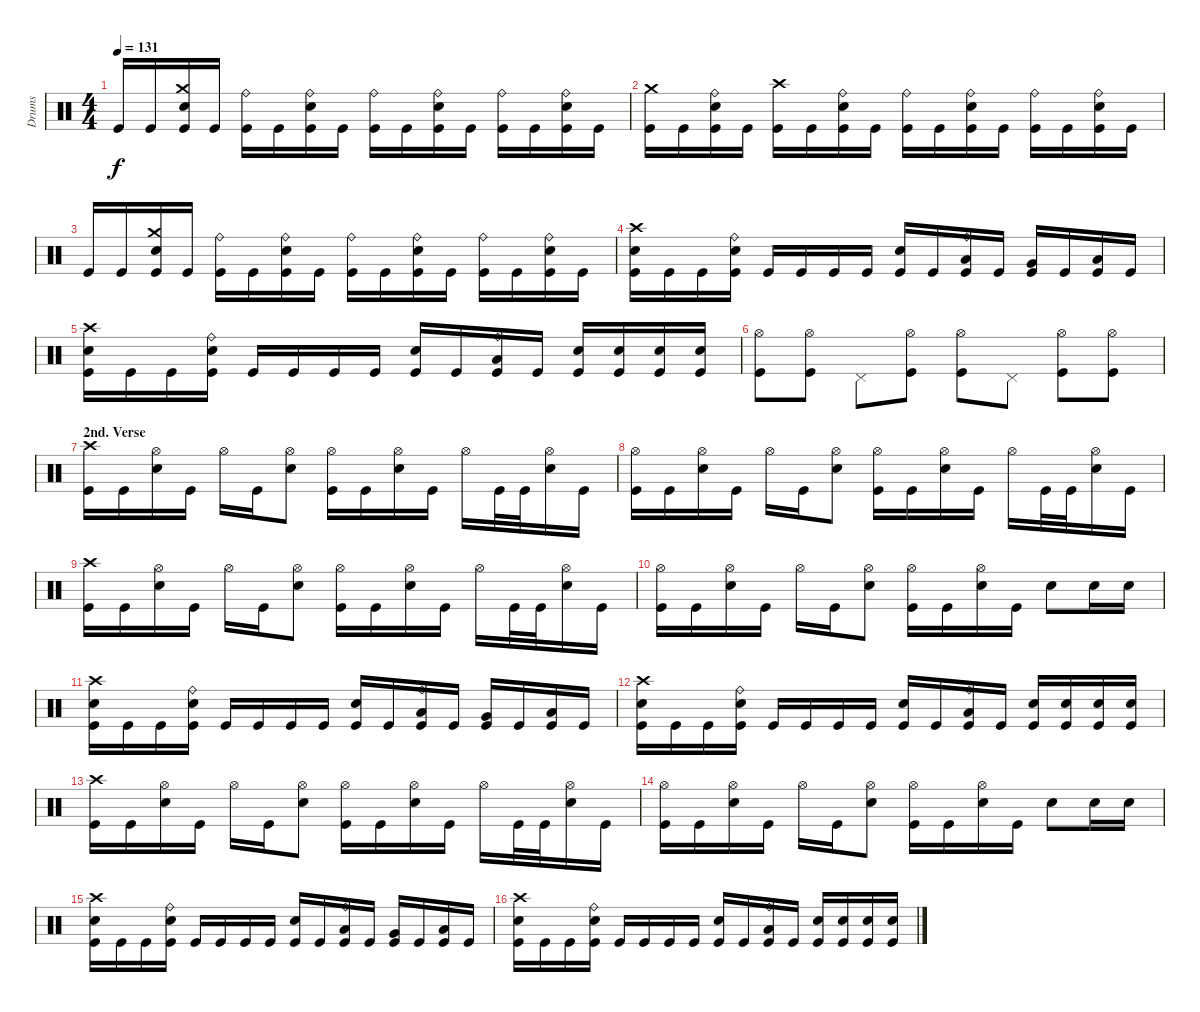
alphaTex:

\track ("Drums" "Drums") {instrument percussion}
\staff {score}
\articulation defaults
\ts (4 4)
\tempo 131
\clef neutral
\ks c "Kick (hit)".16{dy f} "Kick (hit)".16
("Crash medium (hit)" "Snare (hit) 2" "Kick (hit)").16 "Kick (hit)".16 ("Ride (bell)" "Kick (hit)").16 "Kick (hit)".16 ("Ride (bell)" "Snare (hit) 2" "Kick (hit)").16 "Kick (hit)".16 ("Ride (bell)" "Kick (hit)").16 "Kick (hit)".16 ("Ride (bell)" "Snare (hit) 2" "Kick (hit)").16 "Kick (hit)".16 ("Ride (bell)" "Kick (hit)").16 "Kick (hit)".16 ("Ride (bell)" "Snare (hit) 2" "Kick (hit)").16 "Kick (hit)".16 |
("Crash medium (hit)" "Kick (hit)").16 "Kick (hit)".16 ("Ride (bell)" "Snare (hit) 2" "Kick (hit)").16 "Kick (hit)".16 ("Crash high (hit)" "Kick (hit)").16 "Kick (hit)".16 ("Ride (bell)" "Snare (hit) 2" "Kick (hit)").16 "Kick (hit)".16 ("Ride (bell)" "Kick (hit)").16 "Kick (hit)".16 ("Ride (bell)" "Snare (hit) 2" "Kick (hit)").16 "Kick (hit)".16 ("Ride (bell)" "Kick (hit)").16 "Kick (hit)".16 ("Ride (bell)" "Snare (hit) 2" "Kick (hit)").16 "Kick (hit)".16 |
"Kick (hit)".16 "Kick (hit)".16 ("Crash medium (hit)" "Snare (hit) 2" "Kick (hit)").16 "Kick (hit)".16 ("Ride (bell)" "Kick (hit)").16 "Kick (hit)".16 ("Ride (bell)" "Snare (hit) 2" "Kick (hit)").16 "Kick (hit)".16 ("Ride (bell)" "Kick (hit)").16 "Kick (hit)".16 ("Ride (bell)" "Snare (hit) 2" "Kick (hit)").16 "Kick (hit)".16 ("Ride (bell)" "Kick (hit)").16 "Kick (hit)".16 ("Ride (bell)" "Snare (hit) 2" "Kick (hit)").16 "Kick (hit)".16 |
("Crash high (hit)" "Snare (hit) 2" "Kick (hit)").16 "Kick (hit)".16 "Kick (hit)".16 ("Ride (bell)" "Snare (hit) 2" "Kick (hit)").16 "Kick (hit)".16 "Kick (hit)".16 "Kick (hit)".16 "Kick (hit)".16 ("Snare (hit) 2" "Kick (hit)").16 "Kick (hit)".16 ("Low Tom (hit)" "Ride (bell)" "Kick (hit)").16 "Kick (hit)".16 ("Very Low Tom (hit)" "Kick (hit)").16 "Kick (hit)".16 ("Low Floor Tom (hit)" "Kick (hit)").16 "Kick (hit)".16 |
("Crash high (hit)" "Snare (hit) 2" "Kick (hit)").16 "Kick (hit)".16 "Kick (hit)".16 ("Ride (bell)" "Snare (hit) 2" "Kick (hit)").16 "Kick (hit)".16 "Kick (hit)".16 "Kick (hit)".16 "Kick (hit)".16 ("Snare (hit) 2" "Kick (hit)").16 "Kick (hit)".16 ("Low Tom (hit)" "Ride (bell)" "Kick (hit)").16 "Kick (hit)".16 ("Snare (hit) 2" "Kick (hit)").16 ("Snare (hit) 2" "Kick (hit)").16 ("Snare (hit) 2" "Kick (hit)").16 ("Snare (hit) 2" "Kick (hit)").16 |
("Hi-Hat (open)" "Kick (hit)").8 ("Hi-Hat (open)" "Kick (hit)").8 "Pedal Hi-Hat (hit)".8 ("Hi-Hat (open)" "Kick (hit)").8 ("Hi-Hat (open)" "Kick (hit)").8 "Pedal Hi-Hat (hit)".8 ("Hi-Hat (open)" "Kick (hit)").8 ("Hi-Hat (open)" "Kick (hit)").8 |
\section ("" "2nd. Verse")
("Crash high (hit)" "Kick (hit)").16 "Kick (hit)".16 ("Hi-Hat (open)" "Snare (hit) 2").16 "Kick (hit)".16 "Hi-Hat (open)".16 "Kick (hit)".16 ("Hi-Hat (open)" "Snare (hit) 2").8 ("Hi-Hat (open)" "Kick (hit)").16 "Kick (hit)".16 ("Hi-Hat (open)" "Snare (hit) 2").16 "Kick (hit)".16 "Hi-Hat (open)".16 "Kick (hit)".32 "Kick (hit)".32 ("Hi-Hat (open)" "Snare (hit) 2").16 "Kick (hit)".16 |
("Hi-Hat (open)" "Kick (hit)").16 "Kick (hit)".16 ("Hi-Hat (open)" "Snare (hit) 2").16 "Kick (hit)".16 "Hi-Hat (open)".16 "Kick (hit)".16 ("Hi-Hat (open)" "Snare (hit) 2").8 ("Hi-Hat (open)" "Kick (hit)").16 "Kick (hit)".16 ("Hi-Hat (open)" "Snare (hit) 2").16 "Kick (hit)".16 "Hi-Hat (open)".16 "Kick (hit)".32 "Kick (hit)".32 ("Hi-Hat (open)" "Snare (hit) 2").16 "Kick (hit)".16 |
("Crash high (hit)" "Kick (hit)").16 "Kick (hit)".16 ("Hi-Hat (open)" "Snare (hit) 2").16 "Kick (hit)".16 "Hi-Hat (open)".16 "Kick (hit)".16 ("Hi-Hat (open)" "Snare (hit) 2").8 ("Hi-Hat (open)" "Kick (hit)").16 "Kick (hit)".16 ("Hi-Hat (open)" "Snare (hit) 2").16 "Kick (hit)".16 "Hi-Hat (open)".16 "Kick (hit)".32 "Kick (hit)".32 ("Hi-Hat (open)" "Snare (hit) 2").16 "Kick (hit)".16 |
("Hi-Hat (open)" "Kick (hit)").16 "Kick (hit)".16 ("Hi-Hat (open)" "Snare (hit) 2").16 "Kick (hit)".16 "Hi-Hat (open)".16 "Kick (hit)".16 ("Hi-Hat (open)" "Snare (hit) 2").8 ("Hi-Hat (open)" "Kick (hit)").16 "Kick (hit)".16 ("Hi-Hat (open)" "Snare (hit) 2").16 "Kick (hit)".16 "Snare (hit) 2".8 "Snare (hit) 2".16 "Snare (hit) 2".16 |
("Crash high (hit)" "Snare (hit) 2" "Kick (hit)").16 "Kick (hit)".16 "Kick (hit)".16 ("Ride (bell)" "Snare (hit) 2" "Kick (hit)").16 "Kick (hit)".16 "Kick (hit)".16 "Kick (hit)".16 "Kick (hit)".16 ("Snare (hit) 2" "Kick (hit)").16 "Kick (hit)".16 ("Low Tom (hit)" "Ride (bell)" "Kick (hit)").16 "Kick (hit)".16 ("Very Low Tom (hit)" "Kick (hit)").16 "Kick (hit)".16 ("Low Floor Tom (hit)" "Kick (hit)").16 "Kick (hit)".16 |
("Crash high (hit)" "Snare (hit) 2" "Kick (hit)").16 "Kick (hit)".16 "Kick (hit)".16 ("Ride (bell)" "Snare (hit) 2" "Kick (hit)").16 "Kick (hit)".16 "Kick (hit)".16 "Kick (hit)".16 "Kick (hit)".16 ("Snare (hit) 2" "Kick (hit)").16 "Kick (hit)".16 ("Low Tom (hit)" "Ride (bell)" "Kick (hit)").16 "Kick (hit)".16 ("Snare (hit) 2" "Kick (hit)").16 ("Snare (hit) 2" "Kick (hit)").16 ("Snare (hit) 2" "Kick (hit)").16 ("Snare (hit) 2" "Kick (hit)").16 |
("Crash high (hit)" "Kick (hit)").16 "Kick (hit)".16 ("Hi-Hat (open)" "Snare (hit) 2").16 "Kick (hit)".16 "Hi-Hat (open)".16 "Kick (hit)".16 ("Hi-Hat (open)" "Snare (hit) 2").8 ("Hi-Hat (open)" "Kick (hit)").16 "Kick (hit)".16 ("Hi-Hat (open)" "Snare (hit) 2").16 "Kick (hit)".16 "Hi-Hat (open)".16 "Kick (hit)".32 "Kick (hit)".32 ("Hi-Hat (open)" "Snare (hit) 2").16 "Kick (hit)".16 |
("Hi-Hat (open)" "Kick (hit)").16 "Kick (hit)".16 ("Hi-Hat (open)" "Snare (hit) 2").16 "Kick (hit)".16 "Hi-Hat (open)".16 "Kick (hit)".16 ("Hi-Hat (open)" "Snare (hit) 2").8 ("Hi-Hat (open)" "Kick (hit)").16 "Kick (hit)".16 ("Hi-Hat (open)" "Snare (hit) 2").16 "Kick (hit)".16 "Snare (hit) 2".8 "Snare (hit) 2".16 "Snare (hit) 2".16 |
("Crash high (hit)" "Snare (hit) 2" "Kick (hit)").16 "Kick (hit)".16 "Kick (hit)".16 ("Ride (bell)" "Snare (hit) 2" "Kick (hit)").16 "Kick (hit)".16 "Kick (hit)".16 "Kick (hit)".16 "Kick (hit)".16 ("Snare (hit) 2" "Kick (hit)").16 "Kick (hit)".16 ("Low Tom (hit)" "Ride (bell)" "Kick (hit)").16 "Kick (hit)".16 ("Very Low Tom (hit)" "Kick (hit)").16 "Kick (hit)".16 ("Low Floor Tom (hit)" "Kick (hit)").16 "Kick (hit)".16 |
("Crash high (hit)" "Snare (hit) 2" "Kick (hit)").16 "Kick (hit)".16 "Kick (hit)".16 ("Ride (bell)" "Snare (hit) 2" "Kick (hit)").16 "Kick (hit)".16 "Kick (hit)".16 "Kick (hit)".16 "Kick (hit)".16 ("Snare (hit) 2" "Kick (hit)").16 "Kick (hit)".16 ("Low Tom (hit)" "Ride (bell)" "Kick (hit)").16 "Kick (hit)".16 ("Snare (hit) 2" "Kick (hit)").16 ("Snare (hit) 2" "Kick (hit)").16 ("Snare (hit) 2" "Kick (hit)").16 ("Snare (hit) 2" "Kick (hit)").16
